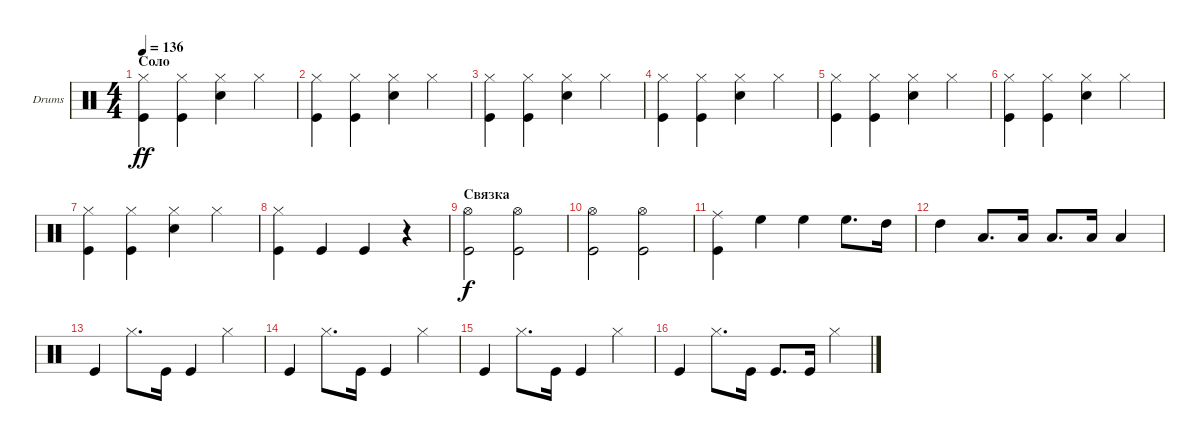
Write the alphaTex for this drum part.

\defaultSystemsLayout 4
\bracketExtendMode groupsimilarinstruments
\firstSystemTrackNameOrientation horizontal
\otherSystemsTrackNameOrientation horizontal
\track ("Drumkit" "Drums") {instrument percussion}
\staff {score}
\articulation defaults
\ts (4 4)
\section ("" "Соло")
\scale
0.211572
\tempo 136
\accidentals auto
\clef neutral
\ottava regular
\simile none
\ks c
("Hi-Hat (closed)" "Kick (hit)").4{dy ff} ("Hi-Hat (closed)" "Kick (hit)").4 ("Hi-Hat (closed)" "Snare (hit) 2").4 "Hi-Hat (closed)".4 |
\scale
0.356688 ("Hi-Hat (closed)" "Kick (hit)").4 ("Hi-Hat (closed)" "Kick (hit)").4 ("Hi-Hat (closed)" "Snare (hit) 2").4 "Hi-Hat (closed)".4 |
\scale
0.296787 ("Hi-Hat (closed)" "Kick (hit)").4 ("Hi-Hat (closed)" "Kick (hit)").4 ("Hi-Hat (closed)" "Snare (hit) 2").4 "Hi-Hat (closed)".4 |
\scale
0.477586 ("Hi-Hat (closed)" "Kick (hit)").4 ("Hi-Hat (closed)" "Kick (hit)").4 ("Hi-Hat (closed)" "Snare (hit) 2").4 "Hi-Hat (closed)".4 |
\scale
0.225215 ("Hi-Hat (closed)" "Kick (hit)").4 ("Hi-Hat (closed)" "Kick (hit)").4 ("Hi-Hat (closed)" "Snare (hit) 2").4 "Hi-Hat (closed)".4 |
\scale
0.431918 ("Hi-Hat (closed)" "Kick (hit)").4 ("Hi-Hat (closed)" "Kick (hit)").4 ("Hi-Hat (closed)" "Snare (hit) 2").4 "Hi-Hat (closed)".4 |
\scale
0.320677 ("Hi-Hat (closed)" "Kick (hit)").4 ("Hi-Hat (closed)" "Kick (hit)").4 ("Hi-Hat (closed)" "Snare (hit) 2").4 "Hi-Hat (closed)".4 |
\scale
0.246291 ("Hi-Hat (closed)" "Kick (hit)").4 "Kick (hit)".4 "Kick (hit)".4 r.4 |
\section ("" "Связка")
\scale
0.300901 ("Hi-Hat (open)" "Kick (hit)").2{dy f} ("Hi-Hat (open)" "Kick (hit)").2 |
\scale
0.306491 ("Hi-Hat (open)" "Kick (hit)").2 ("Hi-Hat (open)" "Kick (hit)").2 |
\scale
0.39332 ("Ride (middle)" "Kick (hit)").4 "High Floor Tom (hit)".4 "High Floor Tom (hit)".4 "High Floor Tom (hit)".8{d} "High Tom (hit)".16 |
"High Tom (hit)".4 "Low Tom (hit)".8{d} "Low Tom (hit)".16 "Low Tom (hit)".8{d} "Low Tom (hit)".16 "Low Tom (hit)".4 |
"Kick (hit)".4 "Hi-Hat (closed)".8{d} "Kick (hit)".16 "Kick (hit)".4 "Hi-Hat (closed)".4 |
"Kick (hit)".4 "Hi-Hat (closed)".8{d} "Kick (hit)".16 "Kick (hit)".4 "Hi-Hat (closed)".4 |
"Kick (hit)".4 "Hi-Hat (closed)".8{d} "Kick (hit)".16 "Kick (hit)".4 "Hi-Hat (closed)".4 |
"Kick (hit)".4 "Hi-Hat (closed)".8{d} "Kick (hit)".16 "Kick (hit)".8{d} "Kick (hit)".16 "Hi-Hat (closed)".4
